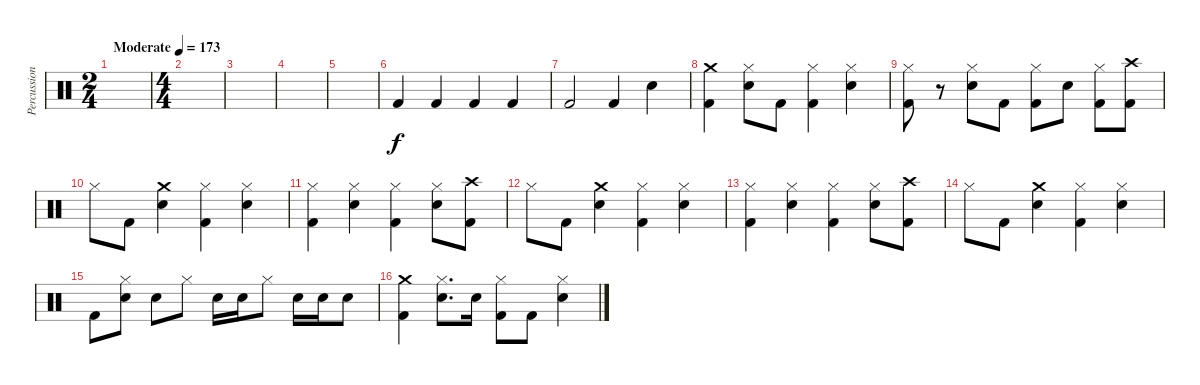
\track ("Percussion" "Percussion") {instrument percussion}
\staff {score}
\articulation defaults
\ts (2 4)
\tempo (173 "Moderate")
\clef neutral
\ks c
|
\ts (4 4)
|
|
|
|
"Kick (hit) 2".4 "Kick (hit) 2".4 "Kick (hit) 2".4 "Kick (hit) 2".4 |
"Kick (hit) 2".2 "Kick (hit) 2".4 "Electric Snare (hit)".4 |
("Crash medium (hit)" "Kick (hit) 2").4 ("Hi-Hat (closed)" "Electric Snare (hit)").8 "Kick (hit) 2".8 ("Hi-Hat (closed)" "Kick (hit) 2").4 ("Hi-Hat (closed)" "Electric Snare (hit)").4 |
("Hi-Hat (closed)" "Kick (hit) 2").8 r.8 ("Hi-Hat (closed)" "Electric Snare (hit)").8 "Kick (hit) 2".8 ("Hi-Hat (closed)" "Kick (hit) 2").8 "Electric Snare (hit)".8 ("Hi-Hat (closed)" "Kick (hit) 2").8 ("Crash high (hit)" "Kick (hit) 2").8 |
"Hi-Hat (closed)".8 "Kick (hit) 2".8 ("Crash medium (hit)" "Electric Snare (hit)").4 ("Hi-Hat (closed)" "Kick (hit) 2").4 ("Hi-Hat (closed)" "Electric Snare (hit)").4 |
("Hi-Hat (closed)" "Kick (hit) 2").4 ("Hi-Hat (closed)" "Electric Snare (hit)").4 ("Hi-Hat (closed)" "Kick (hit) 2").4 ("Hi-Hat (closed)" "Electric Snare (hit)").8 ("Crash high (hit)" "Kick (hit) 2").8 |
"Hi-Hat (closed)".8 "Kick (hit) 2".8 ("Crash medium (hit)" "Electric Snare (hit)").4 ("Hi-Hat (closed)" "Kick (hit) 2").4 ("Hi-Hat (closed)" "Electric Snare (hit)").4 |
("Hi-Hat (closed)" "Kick (hit) 2").4 ("Hi-Hat (closed)" "Electric Snare (hit)").4 ("Hi-Hat (closed)" "Kick (hit) 2").4 ("Hi-Hat (closed)" "Electric Snare (hit)").8 ("Crash high (hit)" "Kick (hit) 2").8 |
"Hi-Hat (closed)".8 "Kick (hit) 2".8 ("Crash medium (hit)" "Electric Snare (hit)").4 ("Hi-Hat (closed)" "Kick (hit) 2").4 ("Hi-Hat (closed)" "Electric Snare (hit)").4 |
"Kick (hit) 2".8 ("Hi-Hat (closed)" "Electric Snare (hit)").8 "Electric Snare (hit)".8 "Hi-Hat (closed)".8 "Electric Snare (hit)".16 "Electric Snare (hit)".16 "Hi-Hat (closed)".8 "Electric Snare (hit)".16 "Electric Snare (hit)".16 "Electric Snare (hit)".8 |
("Crash medium (hit)" "Kick (hit) 2").4{dy f} ("Hi-Hat (closed)" "Electric Snare (hit)").8{d} "Electric Snare (hit)".16 ("Hi-Hat (closed)" "Kick (hit) 2").8 "Kick (hit) 2".8 ("Hi-Hat (closed)" "Electric Snare (hit)").4
